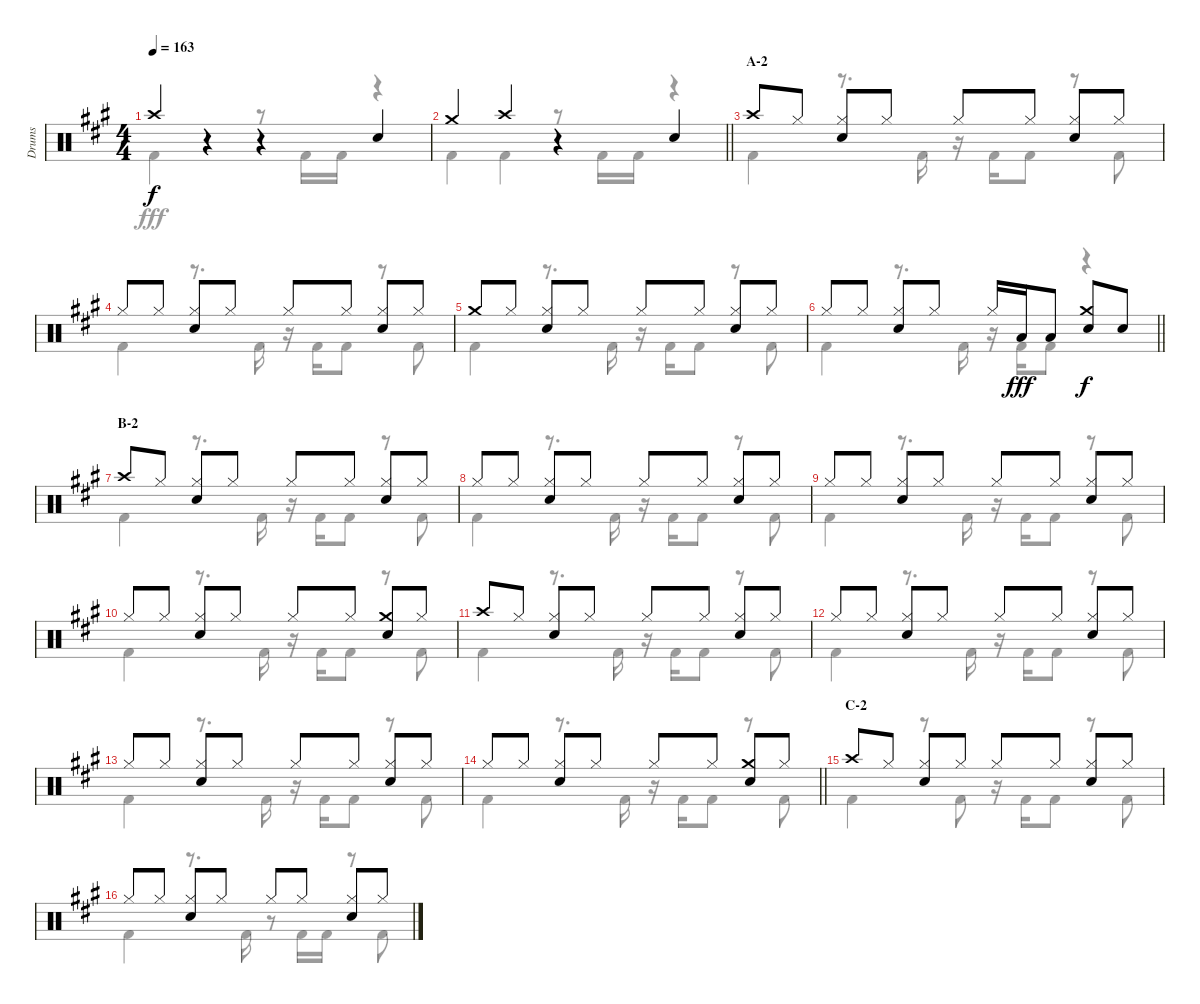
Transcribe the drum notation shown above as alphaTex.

\track ("Drums" "Drums") {instrument percussion}
\staff {score}
\articulation defaults
\voice
\ts (4 4)
\tempo 163
\clef neutral
\ks a "Crash high (hit)".4{dy f}
r.4 r.4 "Snare (hit) 2".4 |
\barLineRight lightlight "Crash medium (hit)".4 "Crash high (hit)".4
r.4 "Snare (hit) 2".4 |
\section ("" "A-2")
"Crash high (hit)".8 "Hi-Hat (closed)".8 ("Hi-Hat (closed)" "Snare (hit) 2").8 "Hi-Hat (closed)".8 "Hi-Hat (closed)".8 "Hi-Hat (closed)".8 ("Hi-Hat (closed)" "Snare (hit) 2").8 "Hi-Hat (closed)".8 |
"Hi-Hat (closed)".8 "Hi-Hat (closed)".8 ("Hi-Hat (closed)" "Snare (hit) 2").8 "Hi-Hat (closed)".8 "Hi-Hat (closed)".8 "Hi-Hat (closed)".8 ("Hi-Hat (closed)" "Snare (hit) 2").8 "Hi-Hat (closed)".8 |
"Crash medium (hit)".8 "Hi-Hat (closed)".8 ("Hi-Hat (closed)" "Snare (hit) 2").8 "Hi-Hat (closed)".8 "Hi-Hat (closed)".8 "Hi-Hat (closed)".8 ("Hi-Hat (closed)" "Snare (hit) 2").8 "Hi-Hat (closed)".8 |
\barLineRight lightlight "Hi-Hat (closed)".8 "Hi-Hat (closed)".8
("Hi-Hat (closed)" "Snare (hit) 2").8 "Hi-Hat (closed)".8 "Hi-Hat (closed)".16 "Low Tom (hit)".16{dy fff} "Low Tom (hit)".8 ("Crash medium (hit)" "Snare (hit) 2").8{dy f} "Snare (hit) 2".8 |
\section ("" "B-2")
"Crash high (hit)".8 "Hi-Hat (closed)".8 ("Hi-Hat (closed)" "Snare (hit) 2").8 "Hi-Hat (closed)".8 "Hi-Hat (closed)".8 "Hi-Hat (closed)".8 ("Hi-Hat (closed)" "Snare (hit) 2").8 "Hi-Hat (closed)".8 |
"Hi-Hat (closed)".8 "Hi-Hat (closed)".8 ("Hi-Hat (closed)" "Snare (hit) 2").8 "Hi-Hat (closed)".8 "Hi-Hat (closed)".8 "Hi-Hat (closed)".8 ("Hi-Hat (closed)" "Snare (hit) 2").8 "Hi-Hat (closed)".8 |
"Hi-Hat (closed)".8 "Hi-Hat (closed)".8 ("Hi-Hat (closed)" "Snare (hit) 2").8 "Hi-Hat (closed)".8 "Hi-Hat (closed)".8 "Hi-Hat (closed)".8 ("Hi-Hat (closed)" "Snare (hit) 2").8 "Hi-Hat (closed)".8 |
"Hi-Hat (closed)".8 "Hi-Hat (closed)".8 ("Hi-Hat (closed)" "Snare (hit) 2").8 "Hi-Hat (closed)".8 "Hi-Hat (closed)".8 "Hi-Hat (closed)".8 ("Crash medium (hit)" "Snare (hit) 2").8 "Hi-Hat (closed)".8 |
"Crash high (hit)".8 "Hi-Hat (closed)".8 ("Hi-Hat (closed)" "Snare (hit) 2").8 "Hi-Hat (closed)".8 "Hi-Hat (closed)".8 "Hi-Hat (closed)".8 ("Hi-Hat (closed)" "Snare (hit) 2").8 "Hi-Hat (closed)".8 |
"Hi-Hat (closed)".8 "Hi-Hat (closed)".8 ("Hi-Hat (closed)" "Snare (hit) 2").8 "Hi-Hat (closed)".8 "Hi-Hat (closed)".8 "Hi-Hat (closed)".8 ("Hi-Hat (closed)" "Snare (hit) 2").8 "Hi-Hat (closed)".8 |
"Hi-Hat (closed)".8 "Hi-Hat (closed)".8 ("Hi-Hat (closed)" "Snare (hit) 2").8 "Hi-Hat (closed)".8 "Hi-Hat (closed)".8 "Hi-Hat (closed)".8 ("Hi-Hat (closed)" "Snare (hit) 2").8 "Hi-Hat (closed)".8 |
\barLineRight lightlight "Hi-Hat (closed)".8 "Hi-Hat (closed)".8
("Hi-Hat (closed)" "Snare (hit) 2").8 "Hi-Hat (closed)".8 "Hi-Hat (closed)".8 "Hi-Hat (closed)".8 ("Crash medium (hit)" "Snare (hit) 2").8 "Hi-Hat (closed)".8 |
\section ("" "C-2")
"Crash high (hit)".8 "Hi-Hat (closed)".8 ("Hi-Hat (closed)" "Snare (hit) 2").8 "Hi-Hat (closed)".8 "Hi-Hat (closed)".8 "Hi-Hat (closed)".8 ("Hi-Hat (closed)" "Snare (hit) 2").8 "Hi-Hat (closed)".8 |
"Hi-Hat (closed)".8 "Hi-Hat (closed)".8 ("Hi-Hat (closed)" "Snare (hit) 2").8 "Hi-Hat (closed)".8 "Hi-Hat (closed)".8 "Hi-Hat (closed)".8 ("Hi-Hat (closed)" "Snare (hit) 2").8 "Hi-Hat (closed)".8
\voice
\clef neutral
\ottava regular
\simile none
\ks a "Kick (hit) 2".4{dy fff}
r.4 r.8 "Kick (hit) 2".16 "Kick (hit) 2".16 r.4 |
\barLineRight lightlight "Kick (hit) 2".4 "Kick (hit) 2".4
r.8 "Kick (hit) 2".16 "Kick (hit) 2".16 r.4 |
"Kick (hit) 2".4 r.8{d} "Kick (hit) 2".16 r.16 "Kick (hit) 2".16 "Kick (hit) 2".8 r.8 "Kick (hit) 2".8 |
"Kick (hit) 2".4 r.8{d} "Kick (hit) 2".16 r.16 "Kick (hit) 2".16 "Kick (hit) 2".8 r.8 "Kick (hit) 2".8 |
"Kick (hit) 2".4 r.8{d} "Kick (hit) 2".16 r.16 "Kick (hit) 2".16 "Kick (hit) 2".8 r.8 "Kick (hit) 2".8 |
\barLineRight lightlight "Kick (hit) 2".4
r.8{d} "Kick (hit) 2".16 r.16 "Kick (hit) 2".16 "Kick (hit) 2".8 r.4 |
"Kick (hit) 2".4 r.8{d} "Kick (hit) 2".16 r.16 "Kick (hit) 2".16 "Kick (hit) 2".8 r.8 "Kick (hit) 2".8 |
"Kick (hit) 2".4 r.8{d} "Kick (hit) 2".16 r.16 "Kick (hit) 2".16 "Kick (hit) 2".8 r.8 "Kick (hit) 2".8 |
"Kick (hit) 2".4 r.8{d} "Kick (hit) 2".16 r.16 "Kick (hit) 2".16 "Kick (hit) 2".8 r.8 "Kick (hit) 2".8 |
"Kick (hit) 2".4 r.8{d} "Kick (hit) 2".16 r.16 "Kick (hit) 2".16 "Kick (hit) 2".8 r.8 "Kick (hit) 2".8 |
"Kick (hit) 2".4 r.8{d} "Kick (hit) 2".16 r.16 "Kick (hit) 2".16 "Kick (hit) 2".8 r.8 "Kick (hit) 2".8 |
"Kick (hit) 2".4 r.8{d} "Kick (hit) 2".16 r.16 "Kick (hit) 2".16 "Kick (hit) 2".8 r.8 "Kick (hit) 2".8 |
"Kick (hit) 2".4 r.8{d} "Kick (hit) 2".16 r.16 "Kick (hit) 2".16 "Kick (hit) 2".8 r.8 "Kick (hit) 2".8 |
\barLineRight lightlight "Kick (hit) 2".4
r.8{d} "Kick (hit) 2".16 r.16 "Kick (hit) 2".16 "Kick (hit) 2".8 r.8 "Kick (hit) 2".8 |
"Kick (hit) 2".4 r.8 "Kick (hit) 2".8 r.16 "Kick (hit) 2".16 "Kick (hit) 2".8 r.8 "Kick (hit) 2".8 |
"Kick (hit) 2".4 r.8{d} "Kick (hit) 2".16 r.8 "Kick (hit) 2".16 "Kick (hit) 2".16 r.8 "Kick (hit) 2".8
